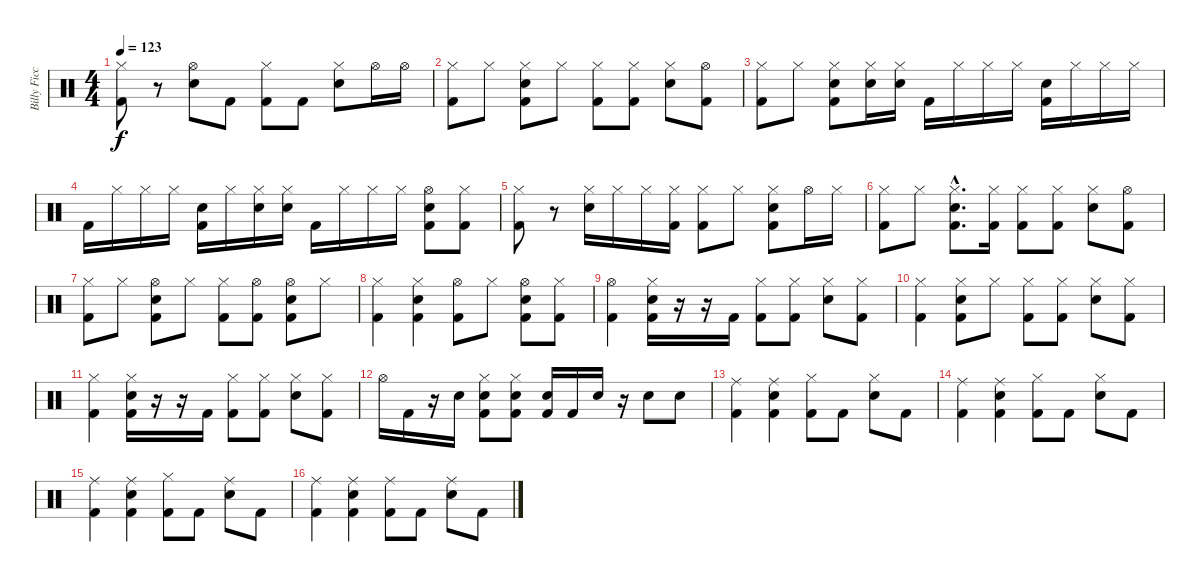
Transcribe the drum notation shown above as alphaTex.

\track ("Billy Ficca" "Billy Ficc") {instrument percussion}
\staff {score}
\articulation defaults
\ts (4 4)
\tempo 123
\clef neutral
\ks c
("Hi-Hat (closed)" "Kick (hit) 2").8{dy f} r.8 ("Hi-Hat (open)" "Snare (hit) 2").8 "Kick (hit) 2".8 ("Hi-Hat (closed)" "Kick (hit) 2").8 "Kick (hit) 2".8 ("Hi-Hat (closed)" "Snare (hit) 2").8 "Hi-Hat (open)".16 "Hi-Hat (open)".16 |
("Hi-Hat (closed)" "Kick (hit) 2").8 "Hi-Hat (closed)".8 ("Hi-Hat (closed)" "Snare (hit) 2" "Kick (hit) 2").8 "Hi-Hat (closed)".8 ("Hi-Hat (closed)" "Kick (hit) 2").8 ("Hi-Hat (closed)" "Kick (hit) 2").8 ("Hi-Hat (closed)" "Snare (hit) 2").8 ("Hi-Hat (open)" "Kick (hit) 2").8 |
("Hi-Hat (closed)" "Kick (hit) 2").8 "Hi-Hat (closed)".8 ("Hi-Hat (closed)" "Snare (hit) 2" "Kick (hit) 2").8 ("Hi-Hat (closed)" "Snare (hit) 2").16 ("Hi-Hat (closed)" "Snare (hit) 2").16 "Kick (hit) 2".16 "Hi-Hat (closed)".16 "Hi-Hat (closed)".16 "Hi-Hat (closed)".16 ("Snare (hit) 2" "Kick (hit) 2").16 "Hi-Hat (closed)".16 "Hi-Hat (closed)".16 "Hi-Hat (closed)".16 |
"Kick (hit) 2".16 "Hi-Hat (closed)".16 "Hi-Hat (closed)".16 "Hi-Hat (closed)".16 ("Snare (hit) 2" "Kick (hit) 2").16 "Hi-Hat (closed)".16 ("Hi-Hat (closed)" "Electric Snare (hit)").16 ("Hi-Hat (closed)" "Electric Snare (hit)").16 "Kick (hit) 2".16 "Hi-Hat (closed)".16 "Hi-Hat (closed)".16 "Hi-Hat (closed)".16 ("Hi-Hat (open)" "Snare (hit) 2" "Kick (hit) 2").8 ("Hi-Hat (closed)" "Kick (hit) 2").8 |
("Hi-Hat (closed)" "Kick (hit) 2").8 r.8 ("Hi-Hat (closed)" "Snare (hit) 2").16 "Hi-Hat (closed)".16 "Hi-Hat (closed)".16 ("Hi-Hat (closed)" "Kick (hit) 2").16 ("Hi-Hat (closed)" "Kick (hit) 2").8 "Hi-Hat (closed)".8 ("Hi-Hat (closed)" "Snare (hit) 2" "Kick (hit) 2").8 "Hi-Hat (open)".16 "Hi-Hat (closed)".16 |
("Hi-Hat (closed)" "Kick (hit) 2").8 "Hi-Hat (closed)".8 ("Hi-Hat (closed)"{hac} "Snare (hit) 2"{hac} "Kick (hit) 2"{hac}).8{d} ("Hi-Hat (closed)" "Kick (hit) 2").16 ("Hi-Hat (closed)" "Kick (hit) 2").8 ("Hi-Hat (closed)" "Kick (hit) 2").8 ("Hi-Hat (closed)" "Snare (hit) 2").8 ("Hi-Hat (open)" "Kick (hit) 2").8 |
("Hi-Hat (closed)" "Kick (hit) 2").8 "Hi-Hat (closed)".8 ("Hi-Hat (open)" "Snare (hit) 2" "Kick (hit) 2").8 "Hi-Hat (closed)".8 ("Hi-Hat (closed)" "Kick (hit) 2").8 ("Hi-Hat (open)" "Kick (hit) 2").8 ("Hi-Hat (open)" "Snare (hit) 2" "Kick (hit) 2").8 "Hi-Hat (closed)".8 |
("Hi-Hat (closed)" "Kick (hit) 2").4 ("Hi-Hat (closed)" "Snare (hit) 2" "Kick (hit) 2").4 ("Hi-Hat (open)" "Kick (hit) 2").8 "Hi-Hat (closed)".8 ("Hi-Hat (open)" "Snare (hit) 2" "Kick (hit) 2").8 ("Hi-Hat (closed)" "Kick (hit) 2").8 |
("Hi-Hat (open)" "Kick (hit) 2").4 ("Hi-Hat (closed)" "Electric Snare (hit)" "Kick (hit) 2").16 r.16 r.16 "Kick (hit) 2".16 ("Hi-Hat (closed)" "Kick (hit) 2").8 ("Hi-Hat (closed)" "Kick (hit) 2").8 ("Hi-Hat (closed)" "Electric Snare (hit)").8 ("Hi-Hat (closed)" "Kick (hit) 2").8 |
("Hi-Hat (closed)" "Kick (hit) 2").4 ("Hi-Hat (closed)" "Electric Snare (hit)" "Kick (hit) 2").8 "Hi-Hat (closed)".8 ("Hi-Hat (closed)" "Kick (hit) 2").8 ("Hi-Hat (closed)" "Kick (hit) 2").8 ("Hi-Hat (closed)" "Electric Snare (hit)").8 ("Hi-Hat (closed)" "Kick (hit) 2").8 |
("Hi-Hat (closed)" "Kick (hit) 2").4 ("Hi-Hat (closed)" "Electric Snare (hit)" "Kick (hit) 2").16 r.16 r.16 "Kick (hit) 2".16 ("Hi-Hat (closed)" "Kick (hit) 2").8 ("Hi-Hat (closed)" "Kick (hit) 2").8 ("Hi-Hat (closed)" "Electric Snare (hit)").8 ("Hi-Hat (closed)" "Kick (hit) 2").8 |
"Hi-Hat (open)".16 "Kick (hit) 2".16 r.16 "Electric Snare (hit)".16 ("Hi-Hat (closed)" "Electric Snare (hit)" "Kick (hit) 2").8 ("Hi-Hat (closed)" "Electric Snare (hit)" "Kick (hit) 2").8 ("Electric Snare (hit)" "Kick (hit) 2").16 "Kick (hit) 2".16 "Electric Snare (hit)".16 r.16 "Electric Snare (hit)".8 "Electric Snare (hit)".8 |
("Ride (middle)" "Kick (hit) 2").4 ("Ride (middle)" "Electric Snare (hit)" "Kick (hit) 2").4 ("Hi-Hat (closed)" "Kick (hit) 2").8 "Kick (hit) 2".8 ("Hi-Hat (closed)" "Electric Snare (hit)").8 "Kick (hit) 2".8 |
("Ride (middle)" "Kick (hit) 2").4 ("Ride (middle)" "Electric Snare (hit)" "Kick (hit) 2").4 ("Hi-Hat (closed)" "Kick (hit) 2").8 "Kick (hit) 2".8 ("Hi-Hat (closed)" "Electric Snare (hit)").8 "Kick (hit) 2".8 |
("Ride (middle)" "Kick (hit) 2").4 ("Ride (middle)" "Electric Snare (hit)" "Kick (hit) 2").4 ("Hi-Hat (closed)" "Kick (hit) 2").8 "Kick (hit) 2".8 ("Ride (middle)" "Electric Snare (hit)").8 "Kick (hit) 2".8 |
("Ride (middle)" "Kick (hit) 2").4 ("Ride (middle)" "Electric Snare (hit)" "Kick (hit) 2").4 ("Ride (middle)" "Kick (hit) 2").8 "Kick (hit) 2".8 ("Ride (middle)" "Electric Snare (hit)").8 "Kick (hit) 2".8
